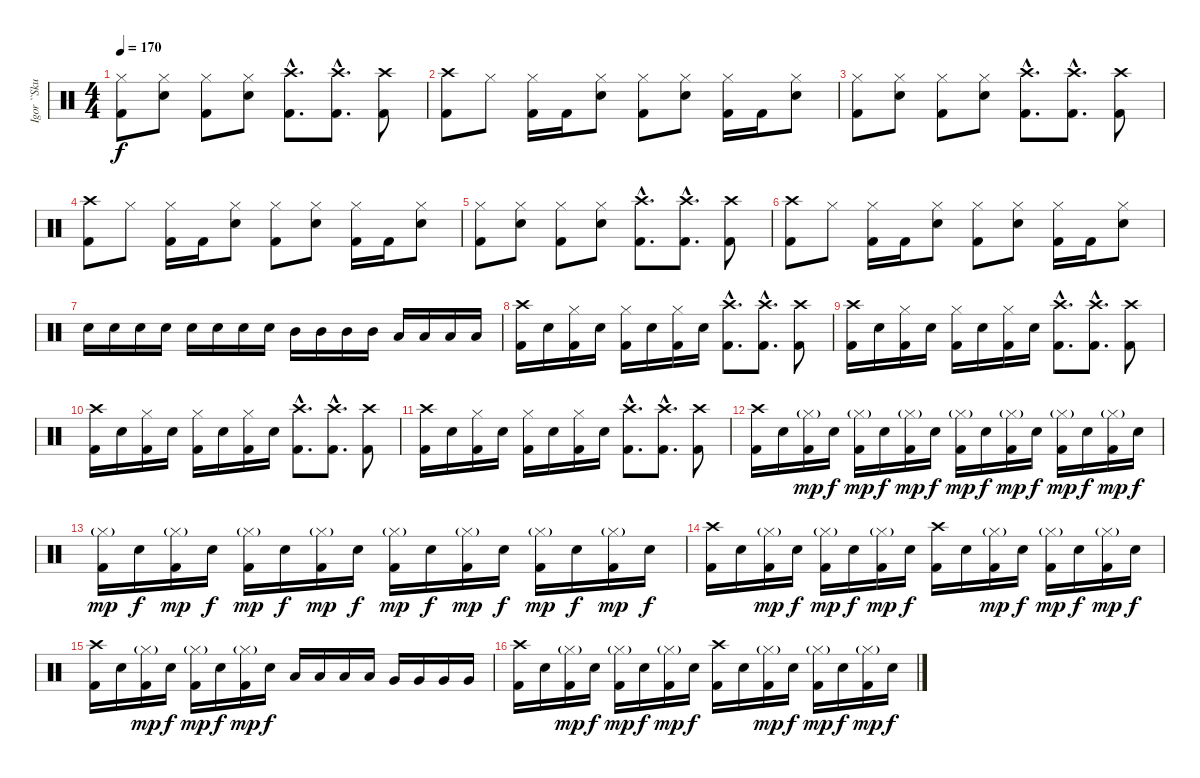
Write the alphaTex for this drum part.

\track ("Igor ``Skullcrusher`` Cavalera" "Igor ``Sku") {instrument percussion}
\staff {score}
\articulation defaults
\ts (4 4)
\tempo 170
\clef neutral
\ks c
("Hi-Hat (closed)" "Kick (hit) 2").8{dy f} ("Hi-Hat (closed)" "Electric Snare (hit)").8 ("Hi-Hat (closed)" "Kick (hit) 2").8 ("Hi-Hat (closed)" "Electric Snare (hit)").8 ("Crash high (hit)"{hac} "Kick (hit) 2"{hac}).8{d} ("Crash high (hit)"{hac} "Kick (hit) 2"{hac}).8{d} ("Crash high (hit)" "Kick (hit) 2").8 |
("Crash high (hit)" "Kick (hit) 2").8 "Hi-Hat (closed)".8 ("Hi-Hat (closed)" "Kick (hit) 2").16 "Kick (hit) 2".16 ("Hi-Hat (closed)" "Electric Snare (hit)").8 ("Hi-Hat (closed)" "Kick (hit) 2").8 ("Hi-Hat (closed)" "Electric Snare (hit)").8 ("Hi-Hat (closed)" "Kick (hit) 2").16 "Kick (hit) 2".16 ("Hi-Hat (closed)" "Electric Snare (hit)").8 |
("Hi-Hat (closed)" "Kick (hit) 2").8 ("Hi-Hat (closed)" "Electric Snare (hit)").8 ("Hi-Hat (closed)" "Kick (hit) 2").8 ("Hi-Hat (closed)" "Electric Snare (hit)").8 ("Crash high (hit)"{hac} "Kick (hit) 2"{hac}).8{d} ("Crash high (hit)"{hac} "Kick (hit) 2"{hac}).8{d} ("Crash high (hit)" "Kick (hit) 2").8 |
("Crash high (hit)" "Kick (hit) 2").8 "Hi-Hat (closed)".8 ("Hi-Hat (closed)" "Kick (hit) 2").16 "Kick (hit) 2".16 ("Hi-Hat (closed)" "Electric Snare (hit)").8 ("Hi-Hat (closed)" "Kick (hit) 2").8 ("Hi-Hat (closed)" "Electric Snare (hit)").8 ("Hi-Hat (closed)" "Kick (hit) 2").16 "Kick (hit) 2".16 ("Hi-Hat (closed)" "Electric Snare (hit)").8 |
("Hi-Hat (closed)" "Kick (hit) 2").8 ("Hi-Hat (closed)" "Electric Snare (hit)").8 ("Hi-Hat (closed)" "Kick (hit) 2").8 ("Hi-Hat (closed)" "Electric Snare (hit)").8 ("Crash high (hit)"{hac} "Kick (hit) 2"{hac}).8{d} ("Crash high (hit)"{hac} "Kick (hit) 2"{hac}).8{d} ("Crash high (hit)" "Kick (hit) 2").8 |
("Crash high (hit)" "Kick (hit) 2").8 "Hi-Hat (closed)".8 ("Hi-Hat (closed)" "Kick (hit) 2").16 "Kick (hit) 2".16 ("Hi-Hat (closed)" "Electric Snare (hit)").8 ("Hi-Hat (closed)" "Kick (hit) 2").8 ("Hi-Hat (closed)" "Electric Snare (hit)").8 ("Hi-Hat (closed)" "Kick (hit) 2").16 "Kick (hit) 2".16 ("Hi-Hat (closed)" "Electric Snare (hit)").8 |
"Electric Snare (hit)".16 "Electric Snare (hit)".16 "Electric Snare (hit)".16 "Electric Snare (hit)".16 "Electric Snare (hit)".16 "Electric Snare (hit)".16 "Electric Snare (hit)".16 "Electric Snare (hit)".16 "Mid Tom (hit)".16 "Mid Tom (hit)".16 "Mid Tom (hit)".16 "Mid Tom (hit)".16 "Low Tom (hit)".16 "Low Tom (hit)".16 "Low Tom (hit)".16 "Low Tom (hit)".16 |
("Crash high (hit)" "Kick (hit) 2").16 "Electric Snare (hit)".16 ("Hi-Hat (closed)" "Kick (hit) 2").16 "Electric Snare (hit)".16 ("Hi-Hat (closed)" "Kick (hit) 2").16 "Electric Snare (hit)".16 ("Hi-Hat (closed)" "Kick (hit) 2").16 "Electric Snare (hit)".16 ("Crash high (hit)"{hac} "Kick (hit) 2"{hac}).8{d} ("Crash high (hit)"{hac} "Kick (hit) 2"{hac}).8{d} ("Crash high (hit)" "Kick (hit) 2").8 |
("Crash high (hit)" "Kick (hit) 2").16 "Electric Snare (hit)".16 ("Hi-Hat (closed)" "Kick (hit) 2").16 "Electric Snare (hit)".16 ("Hi-Hat (closed)" "Kick (hit) 2").16 "Electric Snare (hit)".16 ("Hi-Hat (closed)" "Kick (hit) 2").16 "Electric Snare (hit)".16 ("Crash high (hit)"{hac} "Kick (hit) 2"{hac}).8{d} ("Crash high (hit)"{hac} "Kick (hit) 2"{hac}).8{d} ("Crash high (hit)" "Kick (hit) 2").8 |
("Crash high (hit)" "Kick (hit) 2").16 "Electric Snare (hit)".16 ("Hi-Hat (closed)" "Kick (hit) 2").16 "Electric Snare (hit)".16 ("Hi-Hat (closed)" "Kick (hit) 2").16 "Electric Snare (hit)".16 ("Hi-Hat (closed)" "Kick (hit) 2").16 "Electric Snare (hit)".16 ("Crash high (hit)"{hac} "Kick (hit) 2"{hac}).8{d} ("Crash high (hit)"{hac} "Kick (hit) 2"{hac}).8{d} ("Crash high (hit)" "Kick (hit) 2").8 |
("Crash high (hit)" "Kick (hit) 2").16 "Electric Snare (hit)".16 ("Hi-Hat (closed)" "Kick (hit) 2").16 "Electric Snare (hit)".16 ("Hi-Hat (closed)" "Kick (hit) 2").16 "Electric Snare (hit)".16 ("Hi-Hat (closed)" "Kick (hit) 2").16 "Electric Snare (hit)".16 ("Crash high (hit)"{hac} "Kick (hit) 2"{hac}).8{d} ("Crash high (hit)"{hac} "Kick (hit) 2"{hac}).8{d} ("Crash high (hit)" "Kick (hit) 2").8 |
("Crash high (hit)" "Kick (hit) 2").16 "Electric Snare (hit)".16 ("Hi-Hat (closed)"{g} "Kick (hit) 2").16{dy mp} "Electric Snare (hit)".16{dy f} ("Hi-Hat (closed)"{g} "Kick (hit) 2").16{dy mp} "Electric Snare (hit)".16{dy f} ("Hi-Hat (closed)"{g} "Kick (hit) 2").16{dy mp} "Electric Snare (hit)".16{dy f} ("Hi-Hat (closed)"{g} "Kick (hit) 2").16{dy mp} "Electric Snare (hit)".16{dy f} ("Hi-Hat (closed)"{g} "Kick (hit) 2").16{dy mp} "Electric Snare (hit)".16{dy f} ("Hi-Hat (closed)"{g} "Kick (hit) 2").16{dy mp} "Electric Snare (hit)".16{dy f} ("Hi-Hat (closed)"{g} "Kick (hit) 2").16{dy mp} "Electric Snare (hit)".16{dy f} |
("Hi-Hat (closed)"{g} "Kick (hit) 2").16{dy mp} "Electric Snare (hit)".16{dy f} ("Hi-Hat (closed)"{g} "Kick (hit) 2").16{dy mp} "Electric Snare (hit)".16{dy f} ("Hi-Hat (closed)"{g} "Kick (hit) 2").16{dy mp} "Electric Snare (hit)".16{dy f} ("Hi-Hat (closed)"{g} "Kick (hit) 2").16{dy mp} "Electric Snare (hit)".16{dy f} ("Hi-Hat (closed)"{g} "Kick (hit) 2").16{dy mp} "Electric Snare (hit)".16{dy f} ("Hi-Hat (closed)"{g} "Kick (hit) 2").16{dy mp} "Electric Snare (hit)".16{dy f} ("Hi-Hat (closed)"{g} "Kick (hit) 2").16{dy mp} "Electric Snare (hit)".16{dy f} ("Hi-Hat (closed)"{g} "Kick (hit) 2").16{dy mp} "Electric Snare (hit)".16{dy f} |
("Crash high (hit)" "Kick (hit) 2").16 "Electric Snare (hit)".16 ("Hi-Hat (closed)"{g} "Kick (hit) 2").16{dy mp} "Electric Snare (hit)".16{dy f} ("Hi-Hat (closed)"{g} "Kick (hit) 2").16{dy mp} "Electric Snare (hit)".16{dy f} ("Hi-Hat (closed)"{g} "Kick (hit) 2").16{dy mp} "Electric Snare (hit)".16{dy f} ("Crash high (hit)" "Kick (hit) 2").16 "Electric Snare (hit)".16 ("Hi-Hat (closed)"{g} "Kick (hit) 2").16{dy mp} "Electric Snare (hit)".16{dy f} ("Hi-Hat (closed)"{g} "Kick (hit) 2").16{dy mp} "Electric Snare (hit)".16{dy f} ("Hi-Hat (closed)"{g} "Kick (hit) 2").16{dy mp} "Electric Snare (hit)".16{dy f} |
("Crash high (hit)" "Kick (hit) 2").16 "Electric Snare (hit)".16 ("Hi-Hat (closed)"{g} "Kick (hit) 2").16{dy mp} "Electric Snare (hit)".16{dy f} ("Hi-Hat (closed)"{g} "Kick (hit) 2").16{dy mp} "Electric Snare (hit)".16{dy f} ("Hi-Hat (closed)"{g} "Kick (hit) 2").16{dy mp} "Electric Snare (hit)".16{dy f} "Low Tom (hit)".16 "Low Tom (hit)".16 "Low Tom (hit)".16 "Low Tom (hit)".16 "Very Low Tom (hit)".16 "Very Low Tom (hit)".16 "Very Low Tom (hit)".16 "Very Low Tom (hit)".16 |
("Crash high (hit)" "Kick (hit) 2").16 "Electric Snare (hit)".16 ("Hi-Hat (closed)"{g} "Kick (hit) 2").16{dy mp} "Electric Snare (hit)".16{dy f} ("Hi-Hat (closed)"{g} "Kick (hit) 2").16{dy mp} "Electric Snare (hit)".16{dy f} ("Hi-Hat (closed)"{g} "Kick (hit) 2").16{dy mp} "Electric Snare (hit)".16{dy f} ("Crash high (hit)" "Kick (hit) 2").16 "Electric Snare (hit)".16 ("Hi-Hat (closed)"{g} "Kick (hit) 2").16{dy mp} "Electric Snare (hit)".16{dy f} ("Hi-Hat (closed)"{g} "Kick (hit) 2").16{dy mp} "Electric Snare (hit)".16{dy f} ("Hi-Hat (closed)"{g} "Kick (hit) 2").16{dy mp} "Electric Snare (hit)".16{dy f}
